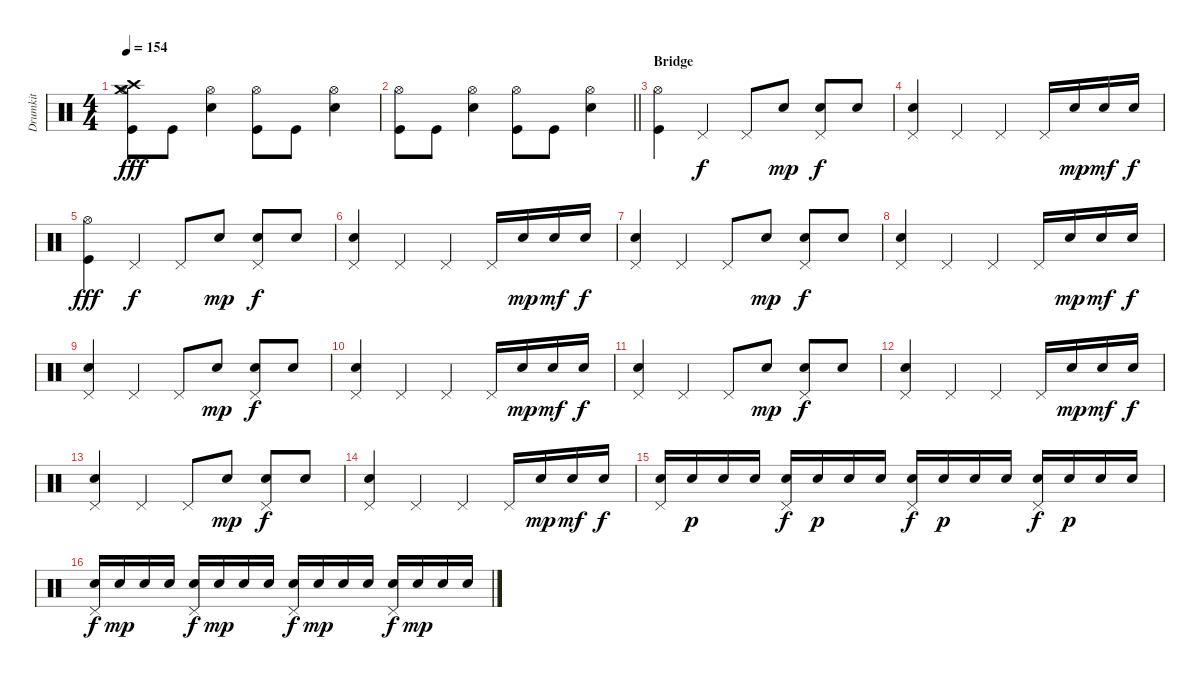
\track ("Drumkit" "Drumkit") {instrument percussion}
\staff {score}
\articulation defaults
\ts (4 4)
\tempo 154
\clef neutral
\ks c
("Crash high (hit)" "Hi-Hat (open)" "Crash medium (hit)" "Kick (hit)").8{dy fff} "Kick (hit)".8 ("Hi-Hat (open)" "Snare (hit) 2").4 ("Hi-Hat (open)" "Kick (hit)").8 "Kick (hit)".8 ("Hi-Hat (open)" "Snare (hit) 2").4 |
\barLineRight lightlight
("Hi-Hat (open)" "Kick (hit)").8 "Kick (hit)".8 ("Hi-Hat (open)" "Snare (hit) 2").4 ("Hi-Hat (open)" "Kick (hit)").8 "Kick (hit)".8 ("Hi-Hat (open)" "Snare (hit) 2").4 |
\section ("" "Bridge ")
("Hi-Hat (open)" "Kick (hit)").4 "Pedal Hi-Hat (hit)".4{dy f} "Pedal Hi-Hat (hit)".8 "Snare (hit) 2".8{dy mp} ("Pedal Hi-Hat (hit)" "Snare (hit) 2").8{dy f} "Snare (hit) 2".8 |
("Pedal Hi-Hat (hit)" "Snare (hit) 2").4 "Pedal Hi-Hat (hit)".4 "Pedal Hi-Hat (hit)".4 "Pedal Hi-Hat (hit)".16 "Snare (hit) 2".16{dy mp} "Snare (hit) 2".16{dy mf} "Snare (hit) 2".16{dy f} |
("Hi-Hat (open)" "Kick (hit)").4{dy fff} "Pedal Hi-Hat (hit)".4{dy f} "Pedal Hi-Hat (hit)".8 "Snare (hit) 2".8{dy mp} ("Pedal Hi-Hat (hit)" "Snare (hit) 2").8{dy f} "Snare (hit) 2".8 |
("Pedal Hi-Hat (hit)" "Snare (hit) 2").4 "Pedal Hi-Hat (hit)".4 "Pedal Hi-Hat (hit)".4 "Pedal Hi-Hat (hit)".16 "Snare (hit) 2".16{dy mp} "Snare (hit) 2".16{dy mf} "Snare (hit) 2".16{dy f} |
("Pedal Hi-Hat (hit)" "Snare (hit) 2").4 "Pedal Hi-Hat (hit)".4 "Pedal Hi-Hat (hit)".8 "Snare (hit) 2".8{dy mp} ("Pedal Hi-Hat (hit)" "Snare (hit) 2").8{dy f} "Snare (hit) 2".8 |
("Pedal Hi-Hat (hit)" "Snare (hit) 2").4 "Pedal Hi-Hat (hit)".4 "Pedal Hi-Hat (hit)".4 "Pedal Hi-Hat (hit)".16 "Snare (hit) 2".16{dy mp} "Snare (hit) 2".16{dy mf} "Snare (hit) 2".16{dy f} |
("Pedal Hi-Hat (hit)" "Snare (hit) 2").4 "Pedal Hi-Hat (hit)".4 "Pedal Hi-Hat (hit)".8 "Snare (hit) 2".8{dy mp} ("Pedal Hi-Hat (hit)" "Snare (hit) 2").8{dy f} "Snare (hit) 2".8 |
("Pedal Hi-Hat (hit)" "Snare (hit) 2").4 "Pedal Hi-Hat (hit)".4 "Pedal Hi-Hat (hit)".4 "Pedal Hi-Hat (hit)".16 "Snare (hit) 2".16{dy mp} "Snare (hit) 2".16{dy mf} "Snare (hit) 2".16{dy f} |
("Pedal Hi-Hat (hit)" "Snare (hit) 2").4 "Pedal Hi-Hat (hit)".4 "Pedal Hi-Hat (hit)".8 "Snare (hit) 2".8{dy mp} ("Pedal Hi-Hat (hit)" "Snare (hit) 2").8{dy f} "Snare (hit) 2".8 |
("Pedal Hi-Hat (hit)" "Snare (hit) 2").4 "Pedal Hi-Hat (hit)".4 "Pedal Hi-Hat (hit)".4 "Pedal Hi-Hat (hit)".16 "Snare (hit) 2".16{dy mp} "Snare (hit) 2".16{dy mf} "Snare (hit) 2".16{dy f} |
("Pedal Hi-Hat (hit)" "Snare (hit) 2").4 "Pedal Hi-Hat (hit)".4 "Pedal Hi-Hat (hit)".8 "Snare (hit) 2".8{dy mp} ("Pedal Hi-Hat (hit)" "Snare (hit) 2").8{dy f} "Snare (hit) 2".8 |
("Pedal Hi-Hat (hit)" "Snare (hit) 2").4 "Pedal Hi-Hat (hit)".4 "Pedal Hi-Hat (hit)".4 "Pedal Hi-Hat (hit)".16 "Snare (hit) 2".16{dy mp} "Snare (hit) 2".16{dy mf} "Snare (hit) 2".16{dy f} |
("Pedal Hi-Hat (hit)" "Snare (hit) 2").16 "Snare (hit) 2".16{dy p} "Snare (hit) 2".16 "Snare (hit) 2".16 ("Pedal Hi-Hat (hit)" "Snare (hit) 2").16{dy f} "Snare (hit) 2".16{dy p} "Snare (hit) 2".16 "Snare (hit) 2".16 ("Pedal Hi-Hat (hit)" "Snare (hit) 2").16{dy f} "Snare (hit) 2".16{dy p} "Snare (hit) 2".16 "Snare (hit) 2".16 ("Pedal Hi-Hat (hit)" "Snare (hit) 2").16{dy f} "Snare (hit) 2".16{dy p} "Snare (hit) 2".16 "Snare (hit) 2".16 |
("Pedal Hi-Hat (hit)" "Snare (hit) 2").16{dy f} "Snare (hit) 2".16{dy mp} "Snare (hit) 2".16 "Snare (hit) 2".16 ("Pedal Hi-Hat (hit)" "Snare (hit) 2").16{dy f} "Snare (hit) 2".16{dy mp} "Snare (hit) 2".16 "Snare (hit) 2".16 ("Pedal Hi-Hat (hit)" "Snare (hit) 2").16{dy f} "Snare (hit) 2".16{dy mp} "Snare (hit) 2".16 "Snare (hit) 2".16 ("Pedal Hi-Hat (hit)" "Snare (hit) 2").16{dy f} "Snare (hit) 2".16{dy mp} "Snare (hit) 2".16 "Snare (hit) 2".16
